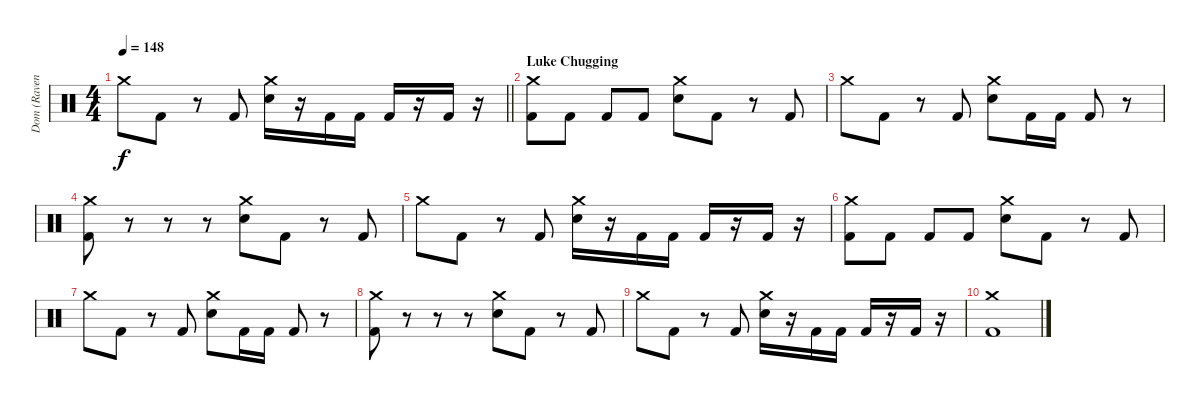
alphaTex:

\track ("Dom (Ravenface)" "Dom (Raven") {instrument percussion}
\staff {score}
\articulation defaults
\ts (4 4)
\tempo 148
\clef neutral
\barLineRight lightlight
\ks c "Crash medium (hit)".8{dy f} "Kick (hit) 2".8
r.8 "Kick (hit) 2".8 ("Crash medium (hit)" "Electric Snare (hit)").16 r.16 "Kick (hit) 2".16 "Kick (hit) 2".16 "Kick (hit) 2".16 r.16 "Kick (hit) 2".16 r.16 |
\section ("" "Luke Chugging")
("Crash medium (hit)" "Kick (hit) 2").8 "Kick (hit) 2".8 "Kick (hit) 2".8 "Kick (hit) 2".8 ("Crash medium (hit)" "Electric Snare (hit)").8 "Kick (hit) 2".8 r.8 "Kick (hit) 2".8 |
"Crash medium (hit)".8 "Kick (hit) 2".8 r.8 "Kick (hit) 2".8 ("Crash medium (hit)" "Electric Snare (hit)").8 "Kick (hit) 2".16 "Kick (hit) 2".16 "Kick (hit) 2".8 r.8 |
("Crash medium (hit)" "Kick (hit) 2").8 r.8 r.8 r.8 ("Crash medium (hit)" "Electric Snare (hit)").8 "Kick (hit) 2".8 r.8 "Kick (hit) 2".8 |
"Crash medium (hit)".8 "Kick (hit) 2".8 r.8 "Kick (hit) 2".8 ("Crash medium (hit)" "Electric Snare (hit)").16 r.16 "Kick (hit) 2".16 "Kick (hit) 2".16 "Kick (hit) 2".16 r.16 "Kick (hit) 2".16 r.16 |
("Crash medium (hit)" "Kick (hit) 2").8 "Kick (hit) 2".8 "Kick (hit) 2".8 "Kick (hit) 2".8 ("Crash medium (hit)" "Electric Snare (hit)").8 "Kick (hit) 2".8 r.8 "Kick (hit) 2".8 |
"Crash medium (hit)".8 "Kick (hit) 2".8 r.8 "Kick (hit) 2".8 ("Crash medium (hit)" "Electric Snare (hit)").8 "Kick (hit) 2".16 "Kick (hit) 2".16 "Kick (hit) 2".8 r.8 |
("Crash medium (hit)" "Kick (hit) 2").8 r.8 r.8 r.8 ("Crash medium (hit)" "Electric Snare (hit)").8 "Kick (hit) 2".8 r.8 "Kick (hit) 2".8 |
"Crash medium (hit)".8 "Kick (hit) 2".8 r.8 "Kick (hit) 2".8 ("Crash medium (hit)" "Electric Snare (hit)").16 r.16 "Kick (hit) 2".16 "Kick (hit) 2".16 "Kick (hit) 2".16 r.16 "Kick (hit) 2".16 r.16 |
("Crash medium (hit)" "Kick (hit) 2").1
